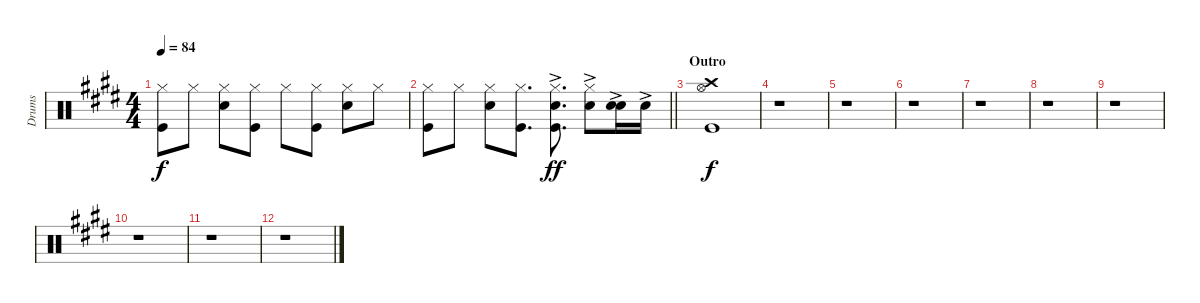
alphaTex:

\track ("Drums" "Drums") {instrument percussion}
\staff {score}
\articulation defaults
\ts (4 4)
\tempo 84
\clef neutral
\ks e
("Hi-Hat (closed)" "Kick (hit)").8{dy f} "Hi-Hat (closed)".8 ("Hi-Hat (closed)" "Snare (hit) 2").8 ("Hi-Hat (closed)" "Kick (hit)").8 "Hi-Hat (closed)".8 ("Hi-Hat (closed)" "Kick (hit)").8 ("Hi-Hat (closed)" "Snare (hit) 2").8 "Hi-Hat (closed)".8 |
\barLineRight lightlight
("Hi-Hat (closed)" "Kick (hit)").8 "Hi-Hat (closed)".8 ("Hi-Hat (closed)" "Snare (hit) 2").8 ("Hi-Hat (closed)" "Kick (hit)").8{d} ("Hi-Hat (closed)" "Snare (hit) 2"{ac} "Kick (hit)").8{d dy ff} ("Hi-Hat (closed)" "Snare (hit) 2"{ac}).8 ("Snare (hit)" "Snare (hit) 2"{ac}).16 "Snare (hit) 2"{ac}.16 |
\section ("" "Outro")
("Crash high (hit)" "Kick (hit)" "Hi-Hat (open)").1{dy f} |
r.1 |
r.1 |
r.1 |
r.1 |
r.1 |
r.1 |
r.1 |
r.1 |
r.1
